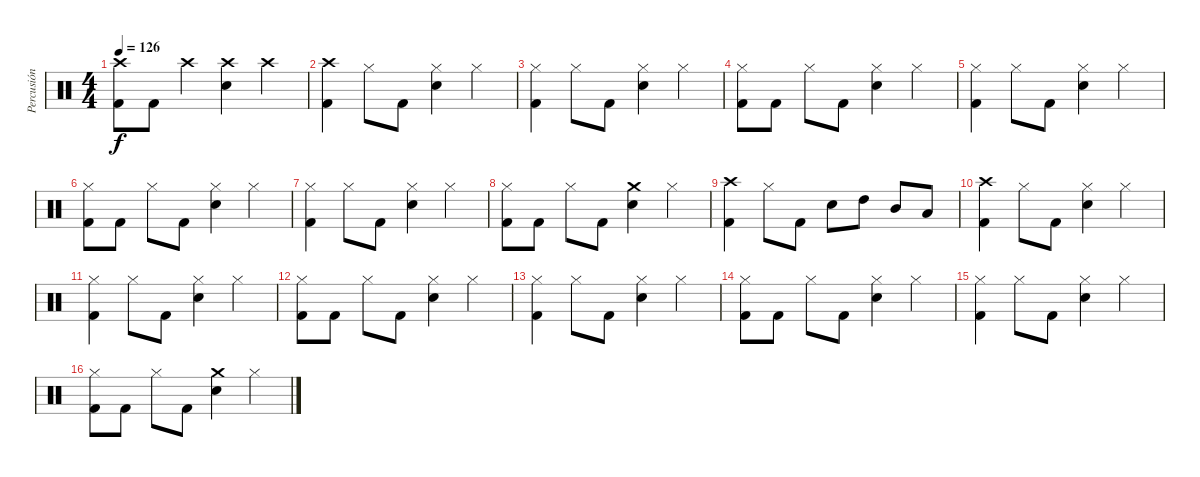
\track ("Percusión" "Percusión") {instrument percussion}
\staff {score}
\articulation defaults
\ts (4 4)
\tempo 126
\clef neutral
\ks c
("Crash high (hit)" "Kick (hit) 2").8{dy f} "Kick (hit) 2".8 "Crash high (hit)".4 ("Crash high (hit)" "Electric Snare (hit)").4 "Crash high (hit)".4 |
("Crash high (hit)" "Kick (hit) 2").4 "Hi-Hat (closed)".8 "Kick (hit) 2".8 ("Hi-Hat (closed)" "Electric Snare (hit)").4 "Hi-Hat (closed)".4 |
("Hi-Hat (closed)" "Kick (hit) 2").4 "Hi-Hat (closed)".8 "Kick (hit) 2".8 ("Hi-Hat (closed)" "Electric Snare (hit)").4 "Hi-Hat (closed)".4 |
("Hi-Hat (closed)" "Kick (hit) 2").8 "Kick (hit) 2".8 "Hi-Hat (closed)".8 "Kick (hit) 2".8 ("Hi-Hat (closed)" "Electric Snare (hit)").4 "Hi-Hat (closed)".4 |
("Hi-Hat (closed)" "Kick (hit) 2").4 "Hi-Hat (closed)".8 "Kick (hit) 2".8 ("Hi-Hat (closed)" "Electric Snare (hit)").4 "Hi-Hat (closed)".4 |
("Hi-Hat (closed)" "Kick (hit) 2").8 "Kick (hit) 2".8 "Hi-Hat (closed)".8 "Kick (hit) 2".8 ("Hi-Hat (closed)" "Electric Snare (hit)").4 "Hi-Hat (closed)".4 |
("Hi-Hat (closed)" "Kick (hit) 2").4 "Hi-Hat (closed)".8 "Kick (hit) 2".8 ("Hi-Hat (closed)" "Electric Snare (hit)").4 "Hi-Hat (closed)".4 |
("Hi-Hat (closed)" "Kick (hit) 2").8 "Kick (hit) 2".8 "Hi-Hat (closed)".8 "Kick (hit) 2".8 ("Crash medium (hit)" "Electric Snare (hit)").4 "Hi-Hat (closed)".4 |
("Crash high (hit)" "Kick (hit) 2").4 "Hi-Hat (closed)".8 "Kick (hit) 2".8 "Electric Snare (hit)".8 "High Tom (hit)".8 "Mid Tom (hit)".8 "Low Tom (hit)".8 |
("Crash high (hit)" "Kick (hit) 2").4 "Hi-Hat (closed)".8 "Kick (hit) 2".8 ("Hi-Hat (closed)" "Electric Snare (hit)").4 "Hi-Hat (closed)".4 |
("Hi-Hat (closed)" "Kick (hit) 2").4 "Hi-Hat (closed)".8 "Kick (hit) 2".8 ("Hi-Hat (closed)" "Electric Snare (hit)").4 "Hi-Hat (closed)".4 |
("Hi-Hat (closed)" "Kick (hit) 2").8 "Kick (hit) 2".8 "Hi-Hat (closed)".8 "Kick (hit) 2".8 ("Hi-Hat (closed)" "Electric Snare (hit)").4 "Hi-Hat (closed)".4 |
("Hi-Hat (closed)" "Kick (hit) 2").4 "Hi-Hat (closed)".8 "Kick (hit) 2".8 ("Hi-Hat (closed)" "Electric Snare (hit)").4 "Hi-Hat (closed)".4 |
("Hi-Hat (closed)" "Kick (hit) 2").8 "Kick (hit) 2".8 "Hi-Hat (closed)".8 "Kick (hit) 2".8 ("Hi-Hat (closed)" "Electric Snare (hit)").4 "Hi-Hat (closed)".4 |
("Hi-Hat (closed)" "Kick (hit) 2").4 "Hi-Hat (closed)".8 "Kick (hit) 2".8 ("Hi-Hat (closed)" "Electric Snare (hit)").4 "Hi-Hat (closed)".4 |
("Hi-Hat (closed)" "Kick (hit) 2").8 "Kick (hit) 2".8 "Hi-Hat (closed)".8 "Kick (hit) 2".8 ("Crash medium (hit)" "Electric Snare (hit)").4 "Hi-Hat (closed)".4
